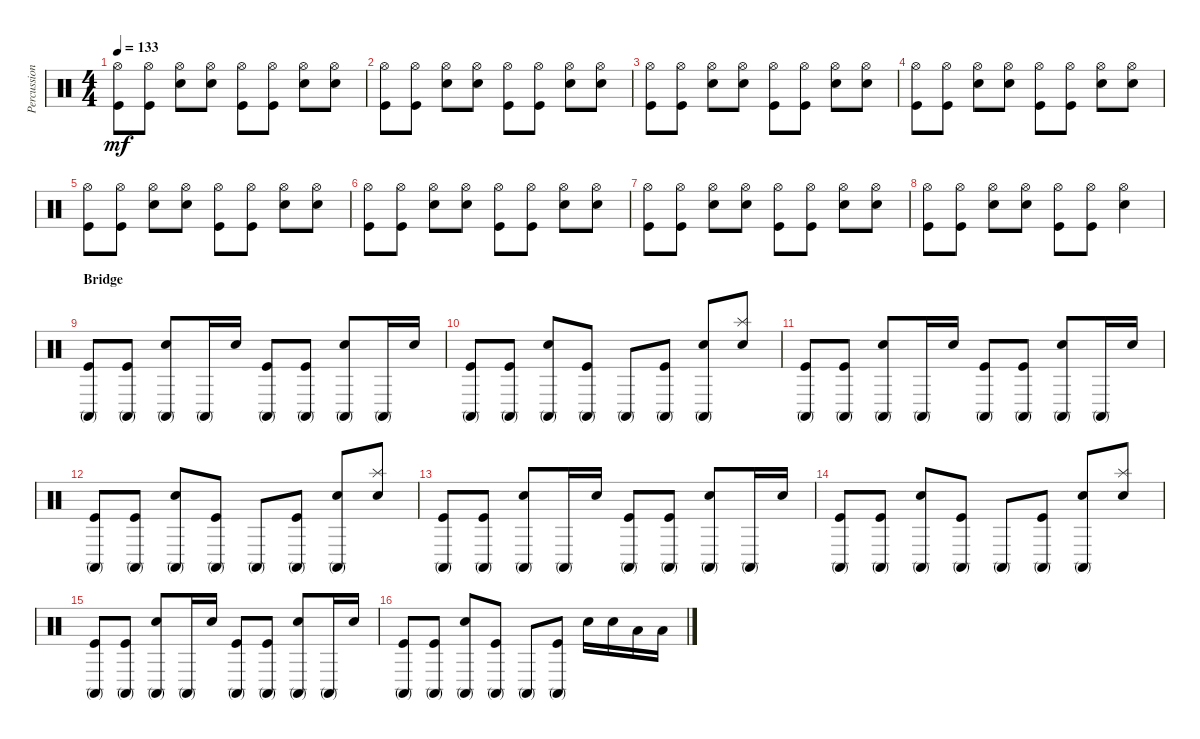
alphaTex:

\track ("Percussion" "Percussion") {instrument percussion}
\staff {score}
\articulation defaults
\ts (4 4)
\tempo 133
\clef neutral
\ks c
("Hi-Hat (open)" "Kick (hit)").8{dy mf} ("Hi-Hat (open)" "Kick (hit)").8 ("Hi-Hat (open)" "Snare (hit) 2").8 ("Hi-Hat (open)" "Snare (hit) 2").8 ("Hi-Hat (open)" "Kick (hit)").8 ("Hi-Hat (open)" "Kick (hit)").8 ("Hi-Hat (open)" "Snare (hit) 2").8 ("Hi-Hat (open)" "Snare (hit) 2").8 |
("Hi-Hat (open)" "Kick (hit)").8 ("Hi-Hat (open)" "Kick (hit)").8 ("Hi-Hat (open)" "Snare (hit) 2").8 ("Hi-Hat (open)" "Snare (hit) 2").8 ("Hi-Hat (open)" "Kick (hit)").8 ("Hi-Hat (open)" "Kick (hit)").8 ("Hi-Hat (open)" "Snare (hit) 2").8 ("Hi-Hat (open)" "Snare (hit) 2").8 |
("Hi-Hat (open)" "Kick (hit)").8 ("Hi-Hat (open)" "Kick (hit)").8 ("Hi-Hat (open)" "Snare (hit) 2").8 ("Hi-Hat (open)" "Snare (hit) 2").8 ("Hi-Hat (open)" "Kick (hit)").8 ("Hi-Hat (open)" "Kick (hit)").8 ("Hi-Hat (open)" "Snare (hit) 2").8 ("Hi-Hat (open)" "Snare (hit) 2").8 |
("Hi-Hat (open)" "Kick (hit)").8 ("Hi-Hat (open)" "Kick (hit)").8 ("Hi-Hat (open)" "Snare (hit) 2").8 ("Hi-Hat (open)" "Snare (hit) 2").8 ("Hi-Hat (open)" "Kick (hit)").8 ("Hi-Hat (open)" "Kick (hit)").8 ("Hi-Hat (open)" "Snare (hit) 2").8 ("Hi-Hat (open)" "Snare (hit) 2").8 |
("Hi-Hat (open)" "Kick (hit)").8 ("Hi-Hat (open)" "Kick (hit)").8 ("Hi-Hat (open)" "Snare (hit) 2").8 ("Hi-Hat (open)" "Snare (hit) 2").8 ("Hi-Hat (open)" "Kick (hit)").8 ("Hi-Hat (open)" "Kick (hit)").8 ("Hi-Hat (open)" "Snare (hit) 2").8 ("Hi-Hat (open)" "Snare (hit) 2").8 |
("Hi-Hat (open)" "Kick (hit)").8 ("Hi-Hat (open)" "Kick (hit)").8 ("Hi-Hat (open)" "Snare (hit) 2").8 ("Hi-Hat (open)" "Snare (hit) 2").8 ("Hi-Hat (open)" "Kick (hit)").8 ("Hi-Hat (open)" "Kick (hit)").8 ("Hi-Hat (open)" "Snare (hit) 2").8 ("Hi-Hat (open)" "Snare (hit) 2").8 |
("Hi-Hat (open)" "Kick (hit)").8 ("Hi-Hat (open)" "Kick (hit)").8 ("Hi-Hat (open)" "Snare (hit) 2").8 ("Hi-Hat (open)" "Snare (hit) 2").8 ("Hi-Hat (open)" "Kick (hit)").8 ("Hi-Hat (open)" "Kick (hit)").8 ("Hi-Hat (open)" "Snare (hit) 2").8 ("Hi-Hat (open)" "Snare (hit) 2").8 |
("Hi-Hat (open)" "Kick (hit)").8 ("Hi-Hat (open)" "Kick (hit)").8 ("Hi-Hat (open)" "Snare (hit) 2").8 ("Hi-Hat (open)" "Snare (hit) 2").8 ("Hi-Hat (open)" "Kick (hit)").8 ("Hi-Hat (open)" "Kick (hit)").8 ("Hi-Hat (open)" "Snare (hit) 2").4 |
\section ("" "Bridge")
("Conga high (mute)" "Kick (hit)").8 ("Conga high (mute)" "Kick (hit)").8 ("Conga high (mute)" "Snare (hit) 2").8 "Conga high (mute)".16 "Snare (hit) 2".16 ("Conga high (mute)" "Kick (hit)").8 ("Conga high (mute)" "Kick (hit)").8 ("Conga high (mute)" "Snare (hit) 2").8 "Conga high (mute)".16 "Snare (hit) 2".16 |
("Conga high (mute)" "Kick (hit)").8 ("Conga high (mute)" "Kick (hit)").8 ("Conga high (mute)" "Snare (hit) 2").8 ("Conga high (mute)" "Kick (hit)").8 "Conga high (mute)".8 ("Conga high (mute)" "Kick (hit)").8 ("Conga high (mute)" "Snare (hit) 2").8 ("Splash (hit)" "Snare (hit) 2").8 |
("Conga high (mute)" "Kick (hit)").8 ("Conga high (mute)" "Kick (hit)").8 ("Conga high (mute)" "Snare (hit) 2").8 "Conga high (mute)".16 "Snare (hit) 2".16 ("Conga high (mute)" "Kick (hit)").8 ("Conga high (mute)" "Kick (hit)").8 ("Conga high (mute)" "Snare (hit) 2").8 "Conga high (mute)".16 "Snare (hit) 2".16 |
("Conga high (mute)" "Kick (hit)").8 ("Conga high (mute)" "Kick (hit)").8 ("Conga high (mute)" "Snare (hit) 2").8 ("Conga high (mute)" "Kick (hit)").8 "Conga high (mute)".8 ("Conga high (mute)" "Kick (hit)").8 ("Conga high (mute)" "Snare (hit) 2").8 ("Splash (hit)" "Snare (hit) 2").8 |
("Conga high (mute)" "Kick (hit)").8 ("Conga high (mute)" "Kick (hit)").8 ("Conga high (mute)" "Snare (hit) 2").8 "Conga high (mute)".16 "Snare (hit) 2".16 ("Conga high (mute)" "Kick (hit)").8 ("Conga high (mute)" "Kick (hit)").8 ("Conga high (mute)" "Snare (hit) 2").8 "Conga high (mute)".16 "Snare (hit) 2".16 |
("Conga high (mute)" "Kick (hit)").8 ("Conga high (mute)" "Kick (hit)").8 ("Conga high (mute)" "Snare (hit) 2").8 ("Conga high (mute)" "Kick (hit)").8 "Conga high (mute)".8 ("Conga high (mute)" "Kick (hit)").8 ("Conga high (mute)" "Snare (hit) 2").8 ("Splash (hit)" "Snare (hit) 2").8 |
("Conga high (mute)" "Kick (hit)").8 ("Conga high (mute)" "Kick (hit)").8 ("Conga high (mute)" "Snare (hit) 2").8 "Conga high (mute)".16 "Snare (hit) 2".16 ("Conga high (mute)" "Kick (hit)").8 ("Conga high (mute)" "Kick (hit)").8 ("Conga high (mute)" "Snare (hit) 2").8 "Conga high (mute)".16 "Snare (hit) 2".16 |
("Conga high (mute)" "Kick (hit)").8 ("Conga high (mute)" "Kick (hit)").8 ("Conga high (mute)" "Snare (hit) 2").8 ("Conga high (mute)" "Kick (hit)").8 "Conga high (mute)".8 ("Conga high (mute)" "Kick (hit)").8 "Snare (hit) 2".16 "Snare (hit) 2".16 "Low Tom (hit)".16 "Low Tom (hit)".16
